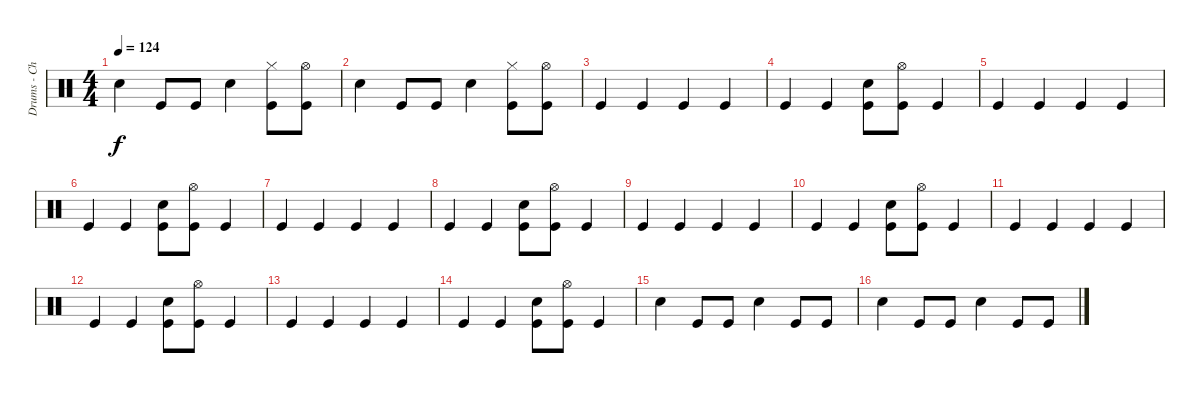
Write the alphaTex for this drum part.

\track ("Drums - Chris Frantz" "Drums - Ch") {instrument percussion}
\staff {score}
\articulation defaults
\ts (4 4)
\tempo 124
\clef neutral
\ks c "Snare (hit) 2".4{dy f} "Kick (hit)".8 "Kick (hit)".8 "Snare (hit) 2".4
("Kick (hit)" "Hi-Hat (closed)").8 ("Kick (hit)" "Hi-Hat (open)").8 |
"Snare (hit) 2".4 "Kick (hit)".8 "Kick (hit)".8 "Snare (hit) 2".4 ("Kick (hit)" "Hi-Hat (closed)").8 ("Kick (hit)" "Hi-Hat (open)").8 |
"Kick (hit)".4 "Kick (hit)".4 "Kick (hit)".4 "Kick (hit)".4 |
"Kick (hit)".4 "Kick (hit)".4 ("Kick (hit)" "Snare (hit) 2").8 ("Kick (hit)" "Hi-Hat (open)").8 "Kick (hit)".4 |
"Kick (hit)".4 "Kick (hit)".4 "Kick (hit)".4 "Kick (hit)".4 |
"Kick (hit)".4 "Kick (hit)".4 ("Kick (hit)" "Snare (hit) 2").8 ("Kick (hit)" "Hi-Hat (open)").8 "Kick (hit)".4 |
"Kick (hit)".4 "Kick (hit)".4 "Kick (hit)".4 "Kick (hit)".4 |
"Kick (hit)".4 "Kick (hit)".4 ("Kick (hit)" "Snare (hit) 2").8 ("Kick (hit)" "Hi-Hat (open)").8 "Kick (hit)".4 |
"Kick (hit)".4 "Kick (hit)".4 "Kick (hit)".4 "Kick (hit)".4 |
"Kick (hit)".4 "Kick (hit)".4 ("Kick (hit)" "Snare (hit) 2").8 ("Kick (hit)" "Hi-Hat (open)").8 "Kick (hit)".4 |
"Kick (hit)".4 "Kick (hit)".4 "Kick (hit)".4 "Kick (hit)".4 |
"Kick (hit)".4 "Kick (hit)".4 ("Kick (hit)" "Snare (hit) 2").8 ("Kick (hit)" "Hi-Hat (open)").8 "Kick (hit)".4 |
"Kick (hit)".4 "Kick (hit)".4 "Kick (hit)".4 "Kick (hit)".4 |
"Kick (hit)".4 "Kick (hit)".4 ("Kick (hit)" "Snare (hit) 2").8 ("Kick (hit)" "Hi-Hat (open)").8 "Kick (hit)".4 |
"Snare (hit) 2".4 "Kick (hit)".8 "Kick (hit)".8 "Snare (hit) 2".4 "Kick (hit)".8 "Kick (hit)".8 |
"Snare (hit) 2".4 "Kick (hit)".8 "Kick (hit)".8 "Snare (hit) 2".4 "Kick (hit)".8 "Kick (hit)".8
